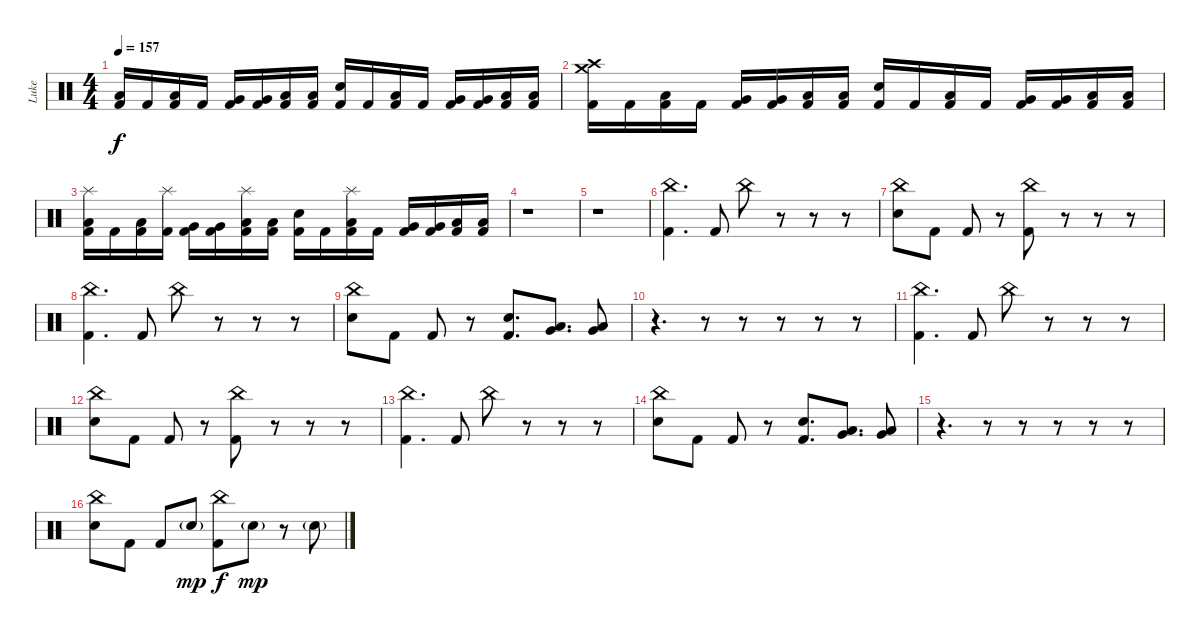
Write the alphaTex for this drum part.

\track ("Luke" "Luke") {instrument percussion}
\staff {score}
\articulation defaults
\ts (4 4)
\tempo 157
\clef neutral
\ks c
("Low Floor Tom (hit)" "Kick (hit) 2").16{dy f} "Kick (hit) 2".16 ("Low Tom (hit)" "Kick (hit) 2").16 "Kick (hit) 2".16 ("Very Low Tom (hit)" "Kick (hit) 2").16 ("Very Low Tom (hit)" "Kick (hit) 2").16 ("Low Floor Tom (hit)" "Kick (hit) 2").16 ("Low Floor Tom (hit)" "Kick (hit) 2").16 ("Electric Snare (hit)" "Kick (hit) 2").16 "Kick (hit) 2".16 ("Low Tom (hit)" "Kick (hit) 2").16 "Kick (hit) 2".16 ("Very Low Tom (hit)" "Kick (hit) 2").16 ("Very Low Tom (hit)" "Kick (hit) 2").16 ("Low Floor Tom (hit)" "Kick (hit) 2").16 ("Low Floor Tom (hit)" "Kick (hit) 2").16 |
("Crash medium (hit)" "Crash high (hit)" "Kick (hit) 2").16 "Kick (hit) 2".16 ("Low Tom (hit)" "Kick (hit) 2").16 "Kick (hit) 2".16 ("Very Low Tom (hit)" "Kick (hit) 2").16 ("Very Low Tom (hit)" "Kick (hit) 2").16 ("Low Floor Tom (hit)" "Kick (hit) 2").16 ("Low Floor Tom (hit)" "Kick (hit) 2").16 ("Electric Snare (hit)" "Kick (hit) 2").16 "Kick (hit) 2".16 ("Low Tom (hit)" "Kick (hit) 2").16 "Kick (hit) 2".16 ("Very Low Tom (hit)" "Kick (hit) 2").16 ("Very Low Tom (hit)" "Kick (hit) 2").16 ("Low Floor Tom (hit)" "Kick (hit) 2").16 ("Low Floor Tom (hit)" "Kick (hit) 2").16 |
("Splash (hit)" "Low Floor Tom (hit)" "Kick (hit) 2").16 "Kick (hit) 2".16 ("Low Tom (hit)" "Kick (hit) 2").16 ("Splash (hit)" "Kick (hit) 2").16 ("Very Low Tom (hit)" "Kick (hit) 2").16 ("Very Low Tom (hit)" "Kick (hit) 2").16 ("Splash (hit)" "Low Floor Tom (hit)" "Kick (hit) 2").16 ("Low Floor Tom (hit)" "Kick (hit) 2").16 ("Electric Snare (hit)" "Kick (hit) 2").16 "Kick (hit) 2".16 ("Splash (hit)" "Low Tom (hit)" "Kick (hit) 2").16 "Kick (hit) 2".16 ("Very Low Tom (hit)" "Kick (hit) 2").16 ("Very Low Tom (hit)" "Kick (hit) 2").16 ("Low Floor Tom (hit)" "Kick (hit) 2").16 ("Low Floor Tom (hit)" "Kick (hit) 2").16 |
r.1 |
r.1 |
("China (hit)" "Kick (hit) 2").4{d} "Kick (hit) 2".8 "China (hit)".8 r.8 r.8 r.8 |
("China (hit)" "Electric Snare (hit)").8 "Kick (hit) 2".8 "Kick (hit) 2".8 r.8 ("China (hit)" "Kick (hit) 2").8 r.8 r.8 r.8 |
("China (hit)" "Kick (hit) 2").4{d} "Kick (hit) 2".8 "China (hit)".8 r.8 r.8 r.8 |
("China (hit)" "Electric Snare (hit)").8 "Kick (hit) 2".8 "Kick (hit) 2".8 r.8 ("Electric Snare (hit)" "Kick (hit) 2").8{d} ("Very Low Tom (hit)" "Low Tom (hit)").8{d} ("Low Floor Tom (hit)" "Very Low Tom (hit)").8 |
r.4{d} r.8 r.8 r.8 r.8 r.8 |
("China (hit)" "Kick (hit) 2").4{d} "Kick (hit) 2".8 "China (hit)".8 r.8 r.8 r.8 |
("China (hit)" "Electric Snare (hit)").8 "Kick (hit) 2".8 "Kick (hit) 2".8 r.8 ("China (hit)" "Kick (hit) 2").8 r.8 r.8 r.8 |
("China (hit)" "Kick (hit) 2").4{d} "Kick (hit) 2".8 "China (hit)".8 r.8 r.8 r.8 |
("China (hit)" "Electric Snare (hit)").8 "Kick (hit) 2".8 "Kick (hit) 2".8 r.8 ("Electric Snare (hit)" "Kick (hit) 2").8{d} ("Very Low Tom (hit)" "Low Tom (hit)").8{d} ("Low Floor Tom (hit)" "Very Low Tom (hit)").8 |
r.4{d} r.8 r.8 r.8 r.8 r.8 |
("China (hit)" "Electric Snare (hit)").8 "Kick (hit) 2".8 "Kick (hit) 2".8 "Snare (hit) 2"{g}.8{dy mp} ("China (hit)" "Kick (hit) 2").8{dy f} "Snare (hit) 2"{g}.8{dy mp} r.8 "Snare (hit) 2"{g}.8
